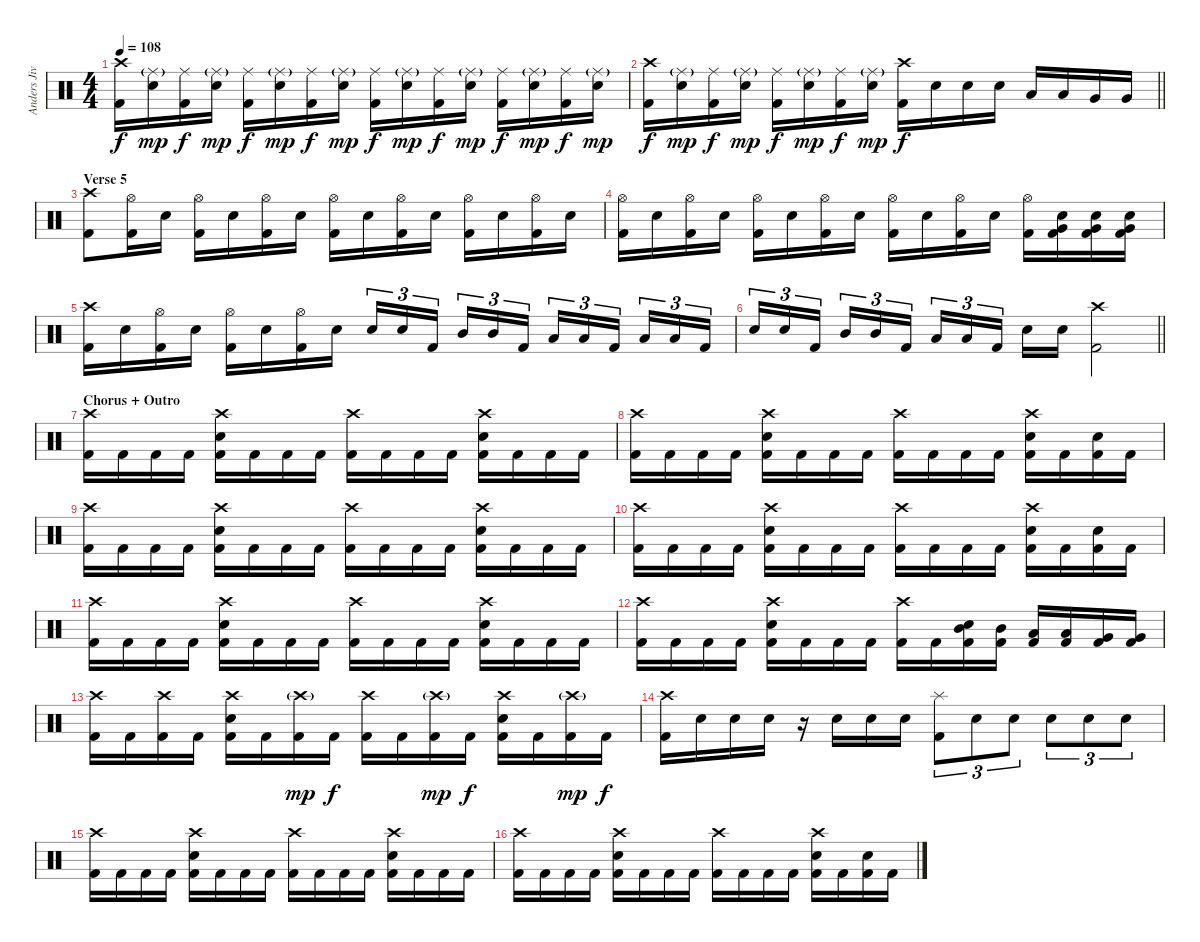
\track ("Anders Jivarp" "Anders Jiv") {instrument percussion}
\staff {score}
\articulation defaults
\ts (4 4)
\tempo 108
\clef neutral
\ks c
("Crash high (hit)" "Kick (hit) 2").16{dy f} ("Ride (middle)"{g} "Snare (hit) 2").16{dy mp} ("Ride (middle)" "Kick (hit) 2").16{dy f} ("Ride (middle)"{g} "Snare (hit) 2").16{dy mp} ("Ride (middle)" "Kick (hit) 2").16{dy f} ("Ride (middle)"{g} "Snare (hit) 2").16{dy mp} ("Ride (middle)" "Kick (hit) 2").16{dy f} ("Ride (middle)"{g} "Snare (hit) 2").16{dy mp} ("Ride (middle)" "Kick (hit) 2").16{dy f} ("Ride (middle)"{g} "Snare (hit) 2").16{dy mp} ("Ride (middle)" "Kick (hit) 2").16{dy f} ("Ride (middle)"{g} "Snare (hit) 2").16{dy mp} ("Ride (middle)" "Kick (hit) 2").16{dy f} ("Ride (middle)"{g} "Snare (hit) 2").16{dy mp} ("Ride (middle)" "Kick (hit) 2").16{dy f} ("Ride (middle)"{g} "Snare (hit) 2").16{dy mp} |
\barLineRight lightlight
("Crash high (hit)" "Kick (hit) 2").16{dy f} ("Ride (middle)"{g} "Snare (hit) 2").16{dy mp} ("Ride (middle)" "Kick (hit) 2").16{dy f} ("Ride (middle)"{g} "Snare (hit) 2").16{dy mp} ("Ride (middle)" "Kick (hit) 2").16{dy f} ("Ride (middle)"{g} "Snare (hit) 2").16{dy mp} ("Ride (middle)" "Kick (hit) 2").16{dy f} ("Ride (middle)"{g} "Snare (hit) 2").16{dy mp} ("Crash high (hit)" "Kick (hit) 2").16{dy f} "Snare (hit) 2".16 "Snare (hit) 2".16 "Snare (hit) 2".16 "Low Tom (hit)".16 "Low Tom (hit)".16 "Very Low Tom (hit)".16 "Very Low Tom (hit)".16 |
\section ("" "Verse 5")
("Crash high (hit)" "Kick (hit) 2").8 ("Hi-Hat (open)" "Kick (hit) 2").16 "Snare (hit) 2".16 ("Hi-Hat (open)" "Kick (hit) 2").16 "Snare (hit) 2".16 ("Hi-Hat (open)" "Kick (hit) 2").16 "Snare (hit) 2".16 ("Hi-Hat (open)" "Kick (hit) 2").16 "Snare (hit) 2".16 ("Hi-Hat (open)" "Kick (hit) 2").16 "Snare (hit) 2".16 ("Hi-Hat (open)" "Kick (hit) 2").16 "Snare (hit) 2".16 ("Hi-Hat (open)" "Kick (hit) 2").16 "Snare (hit) 2".16 |
("Hi-Hat (open)" "Kick (hit) 2").16 "Snare (hit) 2".16 ("Hi-Hat (open)" "Kick (hit) 2").16 "Snare (hit) 2".16 ("Hi-Hat (open)" "Kick (hit) 2").16 "Snare (hit) 2".16 ("Hi-Hat (open)" "Kick (hit) 2").16 "Snare (hit) 2".16 ("Hi-Hat (open)" "Kick (hit) 2").16 "Snare (hit) 2".16 ("Hi-Hat (open)" "Kick (hit) 2").16 "Snare (hit) 2".16 ("Hi-Hat (open)" "Kick (hit) 2").16 ("Snare (hit) 2" "Very Low Tom (hit)" "Kick (hit) 2").16 ("Snare (hit) 2" "Very Low Tom (hit)" "Kick (hit) 2").16 ("Snare (hit) 2" "Very Low Tom (hit)" "Kick (hit) 2").16 |
("Crash high (hit)" "Kick (hit) 2").16 "Snare (hit) 2".16 ("Hi-Hat (open)" "Kick (hit) 2").16 "Snare (hit) 2".16 ("Hi-Hat (open)" "Kick (hit) 2").16 "Snare (hit) 2".16 ("Hi-Hat (open)" "Kick (hit) 2").16 "Snare (hit) 2".16 "Snare (hit) 2".16{tu (3 2)} "Snare (hit) 2".16{tu (3 2)} "Kick (hit) 2".16{tu (3 2) beam splitsecondary} "Mid Tom (hit)".16{tu (3 2)} "Mid Tom (hit)".16{tu (3 2)} "Kick (hit) 2".16{tu (3 2)} "Low Tom (hit)".16{tu (3 2)} "Low Tom (hit)".16{tu (3 2)} "Kick (hit) 2".16{tu (3 2) beam splitsecondary} "Low Tom (hit)".16{tu (3 2)} "Low Tom (hit)".16{tu (3 2)} "Kick (hit) 2".16{tu (3 2)} |
\barLineRight lightlight "Snare (hit) 2".16{tu (3 2)} "Snare (hit) 2".16{tu (3 2)} "Kick (hit) 2".16{tu (3 2) beam splitsecondary} "Mid Tom (hit)".16{tu (3 2)} "Mid Tom (hit)".16{tu (3 2)} "Kick (hit) 2".16{tu (3 2)} "Low Tom (hit)".16{tu (3 2)} "Low Tom (hit)".16{tu (3 2)} "Kick (hit) 2".16{tu (3 2) beam splitsecondary} "Snare (hit) 2".16 "Snare (hit) 2".16
("Crash high (hit)" "Kick (hit) 2").2 |
\section ("" "Chorus + Outro")
("Crash high (hit)" "Kick (hit) 2").16 "Kick (hit) 2".16 "Kick (hit) 2".16 "Kick (hit) 2".16 ("Crash high (hit)" "Snare (hit) 2" "Kick (hit) 2").16 "Kick (hit) 2".16 "Kick (hit) 2".16 "Kick (hit) 2".16 ("Crash high (hit)" "Kick (hit) 2").16 "Kick (hit) 2".16 "Kick (hit) 2".16 "Kick (hit) 2".16 ("Crash high (hit)" "Snare (hit) 2" "Kick (hit) 2").16 "Kick (hit) 2".16 "Kick (hit) 2".16 "Kick (hit) 2".16 |
("Crash high (hit)" "Kick (hit) 2").16 "Kick (hit) 2".16 "Kick (hit) 2".16 "Kick (hit) 2".16 ("Crash high (hit)" "Snare (hit) 2" "Kick (hit) 2").16 "Kick (hit) 2".16 "Kick (hit) 2".16 "Kick (hit) 2".16 ("Crash high (hit)" "Kick (hit) 2").16 "Kick (hit) 2".16 "Kick (hit) 2".16 "Kick (hit) 2".16 ("Crash high (hit)" "Snare (hit) 2" "Kick (hit) 2").16 "Kick (hit) 2".16 ("Snare (hit) 2" "Kick (hit) 2").16 "Kick (hit) 2".16 |
("Crash high (hit)" "Kick (hit) 2").16 "Kick (hit) 2".16 "Kick (hit) 2".16 "Kick (hit) 2".16 ("Crash high (hit)" "Snare (hit) 2" "Kick (hit) 2").16 "Kick (hit) 2".16 "Kick (hit) 2".16 "Kick (hit) 2".16 ("Crash high (hit)" "Kick (hit) 2").16 "Kick (hit) 2".16 "Kick (hit) 2".16 "Kick (hit) 2".16 ("Crash high (hit)" "Snare (hit) 2" "Kick (hit) 2").16 "Kick (hit) 2".16 "Kick (hit) 2".16 "Kick (hit) 2".16 |
("Crash high (hit)" "Kick (hit) 2").16 "Kick (hit) 2".16 "Kick (hit) 2".16 "Kick (hit) 2".16 ("Crash high (hit)" "Snare (hit) 2" "Kick (hit) 2").16 "Kick (hit) 2".16 "Kick (hit) 2".16 "Kick (hit) 2".16 ("Crash high (hit)" "Kick (hit) 2").16 "Kick (hit) 2".16 "Kick (hit) 2".16 "Kick (hit) 2".16 ("Crash high (hit)" "Snare (hit) 2" "Kick (hit) 2").16 "Kick (hit) 2".16 ("Snare (hit) 2" "Kick (hit) 2").16 "Kick (hit) 2".16 |
("Crash high (hit)" "Kick (hit) 2").16 "Kick (hit) 2".16 "Kick (hit) 2".16 "Kick (hit) 2".16 ("Crash high (hit)" "Snare (hit) 2" "Kick (hit) 2").16 "Kick (hit) 2".16 "Kick (hit) 2".16 "Kick (hit) 2".16 ("Crash high (hit)" "Kick (hit) 2").16 "Kick (hit) 2".16 "Kick (hit) 2".16 "Kick (hit) 2".16 ("Crash high (hit)" "Snare (hit) 2" "Kick (hit) 2").16 "Kick (hit) 2".16 "Kick (hit) 2".16 "Kick (hit) 2".16 |
("Crash high (hit)" "Kick (hit) 2").16 "Kick (hit) 2".16 "Kick (hit) 2".16 "Kick (hit) 2".16 ("Crash high (hit)" "Snare (hit) 2" "Kick (hit) 2").16 "Kick (hit) 2".16 "Kick (hit) 2".16 "Kick (hit) 2".16 ("Crash high (hit)" "Kick (hit) 2").16 "Kick (hit) 2".16 ("Mid Tom (hit)" "Snare (hit) 2" "Kick (hit) 2").16 ("Mid Tom (hit)" "Kick (hit) 2").16 ("Low Tom (hit)" "Kick (hit) 2").16 ("Low Tom (hit)" "Kick (hit) 2").16 ("Very Low Tom (hit)" "Kick (hit) 2").16 ("Very Low Tom (hit)" "Kick (hit) 2").16 |
("Crash high (hit)" "Kick (hit) 2").16 "Kick (hit) 2".16 ("Crash high (hit)" "Kick (hit) 2").16 "Kick (hit) 2".16 ("Crash high (hit)" "Snare (hit) 2" "Kick (hit) 2").16 "Kick (hit) 2".16 ("Crash high (hit)"{g} "Kick (hit) 2").16{dy mp} "Kick (hit) 2".16{dy f} ("Crash high (hit)" "Kick (hit) 2").16 "Kick (hit) 2".16 ("Crash high (hit)"{g} "Kick (hit) 2").16{dy mp} "Kick (hit) 2".16{dy f} ("Crash high (hit)" "Snare (hit) 2" "Kick (hit) 2").16 "Kick (hit) 2".16 ("Crash high (hit)"{g} "Kick (hit) 2").16{dy mp} "Kick (hit) 2".16{dy f} |
("Crash high (hit)" "Kick (hit) 2").16 "Snare (hit) 2".16 "Snare (hit) 2".16 "Snare (hit) 2".16 r.16 "Snare (hit) 2".16 "Snare (hit) 2".16 "Snare (hit) 2".16 ("Splash (hit)" "Kick (hit) 2").8{tu (3 2)} "Snare (hit) 2".8{tu (3 2)} "Snare (hit) 2".8{tu (3 2)} "Snare (hit) 2".8{tu (3 2)} "Snare (hit) 2".8{tu (3 2)} "Snare (hit) 2".8{tu (3 2)} |
("Crash high (hit)" "Kick (hit) 2").16 "Kick (hit) 2".16 "Kick (hit) 2".16 "Kick (hit) 2".16 ("Crash high (hit)" "Snare (hit) 2" "Kick (hit) 2").16 "Kick (hit) 2".16 "Kick (hit) 2".16 "Kick (hit) 2".16 ("Crash high (hit)" "Kick (hit) 2").16 "Kick (hit) 2".16 "Kick (hit) 2".16 "Kick (hit) 2".16 ("Crash high (hit)" "Snare (hit) 2" "Kick (hit) 2").16 "Kick (hit) 2".16 "Kick (hit) 2".16 "Kick (hit) 2".16 |
("Crash high (hit)" "Kick (hit) 2").16 "Kick (hit) 2".16 "Kick (hit) 2".16 "Kick (hit) 2".16 ("Crash high (hit)" "Snare (hit) 2" "Kick (hit) 2").16 "Kick (hit) 2".16 "Kick (hit) 2".16 "Kick (hit) 2".16 ("Crash high (hit)" "Kick (hit) 2").16 "Kick (hit) 2".16 "Kick (hit) 2".16 "Kick (hit) 2".16 ("Crash high (hit)" "Snare (hit) 2" "Kick (hit) 2").16 "Kick (hit) 2".16 ("Snare (hit) 2" "Kick (hit) 2").16 "Kick (hit) 2".16
